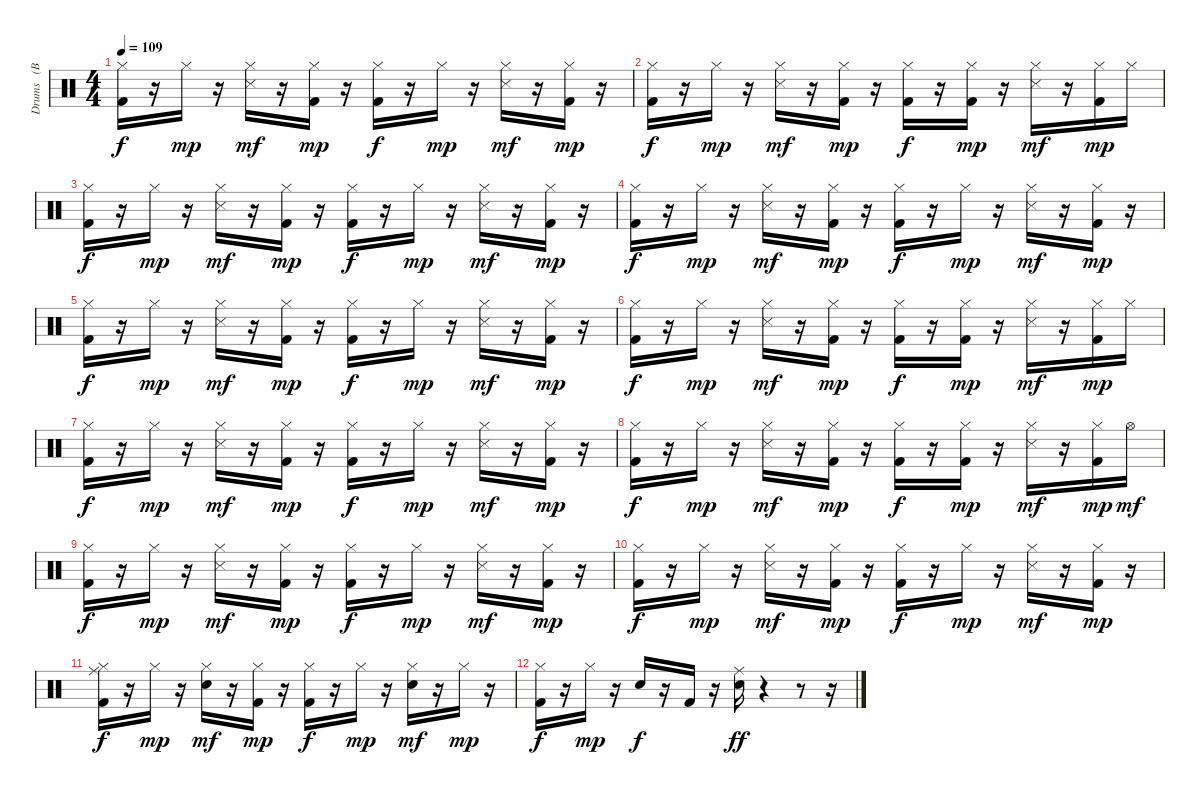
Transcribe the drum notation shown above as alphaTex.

\track ("Drums   (BB)" "Drums   (B") {instrument percussion}
\staff {score}
\articulation defaults
\ts (4 4)
\tempo 109
\clef neutral
\ks c
("Kick (hit) 2" "Hi-Hat (closed)").16{dy f} r.16 "Hi-Hat (closed)".16{dy mp} r.16 ("Hi-Hat (closed)" "Snare (side stick) 3").16{dy mf} r.16 ("Kick (hit) 2" "Hi-Hat (closed)").16{dy mp} r.16 ("Kick (hit) 2" "Hi-Hat (closed)").16{dy f} r.16 "Hi-Hat (closed)".16{dy mp} r.16 ("Hi-Hat (closed)" "Snare (side stick) 3").16{dy mf} r.16 ("Kick (hit) 2" "Hi-Hat (closed)").16{dy mp} r.16 |
("Kick (hit) 2" "Hi-Hat (closed)").16{dy f} r.16 "Hi-Hat (closed)".16{dy mp} r.16 ("Hi-Hat (closed)" "Snare (side stick) 3").16{dy mf} r.16 ("Kick (hit) 2" "Hi-Hat (closed)").16{dy mp} r.16 ("Kick (hit) 2" "Hi-Hat (closed)").16{dy f} r.16 ("Kick (hit) 2" "Hi-Hat (closed)").16{dy mp} r.16 ("Hi-Hat (closed)" "Snare (side stick) 3").16{dy mf} r.16 ("Kick (hit) 2" "Hi-Hat (closed)").16{dy mp} "Hi-Hat (closed)".16 |
("Kick (hit) 2" "Hi-Hat (closed)").16{dy f} r.16 "Hi-Hat (closed)".16{dy mp} r.16 ("Hi-Hat (closed)" "Snare (side stick) 3").16{dy mf} r.16 ("Kick (hit) 2" "Hi-Hat (closed)").16{dy mp} r.16 ("Kick (hit) 2" "Hi-Hat (closed)").16{dy f} r.16 "Hi-Hat (closed)".16{dy mp} r.16 ("Hi-Hat (closed)" "Snare (side stick) 3").16{dy mf} r.16 ("Kick (hit) 2" "Hi-Hat (closed)").16{dy mp} r.16 |
("Kick (hit) 2" "Hi-Hat (closed)").16{dy f} r.16 "Hi-Hat (closed)".16{dy mp} r.16 ("Hi-Hat (closed)" "Snare (side stick) 3").16{dy mf} r.16 ("Kick (hit) 2" "Hi-Hat (closed)").16{dy mp} r.16 ("Kick (hit) 2" "Hi-Hat (closed)").16{dy f} r.16 "Hi-Hat (closed)".16{dy mp} r.16 ("Hi-Hat (closed)" "Snare (side stick) 3").16{dy mf} r.16 ("Kick (hit) 2" "Hi-Hat (closed)").16{dy mp} r.16 |
("Kick (hit) 2" "Hi-Hat (closed)").16{dy f} r.16 "Hi-Hat (closed)".16{dy mp} r.16 ("Hi-Hat (closed)" "Snare (side stick) 3").16{dy mf} r.16 ("Kick (hit) 2" "Hi-Hat (closed)").16{dy mp} r.16 ("Kick (hit) 2" "Hi-Hat (closed)").16{dy f} r.16 "Hi-Hat (closed)".16{dy mp} r.16 ("Hi-Hat (closed)" "Snare (side stick) 3").16{dy mf} r.16 ("Kick (hit) 2" "Hi-Hat (closed)").16{dy mp} r.16 |
("Kick (hit) 2" "Hi-Hat (closed)").16{dy f} r.16 "Hi-Hat (closed)".16{dy mp} r.16 ("Hi-Hat (closed)" "Snare (side stick) 3").16{dy mf} r.16 ("Kick (hit) 2" "Hi-Hat (closed)").16{dy mp} r.16 ("Kick (hit) 2" "Hi-Hat (closed)").16{dy f} r.16 ("Kick (hit) 2" "Hi-Hat (closed)").16{dy mp} r.16 ("Hi-Hat (closed)" "Snare (side stick) 3").16{dy mf} r.16 ("Kick (hit) 2" "Hi-Hat (closed)").16{dy mp} "Hi-Hat (closed)".16 |
("Kick (hit) 2" "Hi-Hat (closed)").16{dy f} r.16 "Hi-Hat (closed)".16{dy mp} r.16 ("Hi-Hat (closed)" "Snare (side stick) 3").16{dy mf} r.16 ("Kick (hit) 2" "Hi-Hat (closed)").16{dy mp} r.16 ("Kick (hit) 2" "Hi-Hat (closed)").16{dy f} r.16 "Hi-Hat (closed)".16{dy mp} r.16 ("Hi-Hat (closed)" "Snare (side stick) 3").16{dy mf} r.16 ("Kick (hit) 2" "Hi-Hat (closed)").16{dy mp} r.16 |
("Kick (hit) 2" "Hi-Hat (closed)").16{dy f} r.16 "Hi-Hat (closed)".16{dy mp} r.16 ("Hi-Hat (closed)" "Snare (side stick) 3").16{dy mf} r.16 ("Kick (hit) 2" "Hi-Hat (closed)").16{dy mp} r.16 ("Kick (hit) 2" "Hi-Hat (closed)").16{dy f} r.16 ("Kick (hit) 2" "Hi-Hat (closed)").16{dy mp} r.16 ("Hi-Hat (closed)" "Snare (side stick) 3").16{dy mf} r.16 ("Kick (hit) 2" "Hi-Hat (closed)").16{dy mp} "Hi-Hat (open)".16{dy mf} |
("Kick (hit) 2" "Hi-Hat (closed)").16{dy f} r.16 "Hi-Hat (closed)".16{dy mp} r.16 ("Hi-Hat (closed)" "Snare (side stick) 3").16{dy mf} r.16 ("Kick (hit) 2" "Hi-Hat (closed)").16{dy mp} r.16 ("Kick (hit) 2" "Hi-Hat (closed)").16{dy f} r.16 "Hi-Hat (closed)".16{dy mp} r.16 ("Hi-Hat (closed)" "Snare (side stick) 3").16{dy mf} r.16 ("Kick (hit) 2" "Hi-Hat (closed)").16{dy mp} r.16 |
("Kick (hit) 2" "Hi-Hat (closed)").16{dy f} r.16 "Hi-Hat (closed)".16{dy mp} r.16 ("Hi-Hat (closed)" "Snare (side stick) 3").16{dy mf} r.16 ("Kick (hit) 2" "Hi-Hat (closed)").16{dy mp} r.16 ("Kick (hit) 2" "Hi-Hat (closed)").16{dy f} r.16 "Hi-Hat (closed)".16{dy mp} r.16 ("Hi-Hat (closed)" "Snare (side stick) 3").16{dy mf} r.16 ("Kick (hit) 2" "Hi-Hat (closed)").16{dy mp} r.16 |
("Kick (hit) 2" "Hi-Hat (closed)" "Ride (middle)").16{dy f} r.16 "Hi-Hat (closed)".16{dy mp} r.16 ("Snare (hit) 2" "Hi-Hat (closed)").16{dy mf} r.16 ("Kick (hit) 2" "Hi-Hat (closed)").16{dy mp} r.16 ("Kick (hit) 2" "Hi-Hat (closed)").16{dy f} r.16 "Hi-Hat (closed)".16{dy mp} r.16 ("Snare (hit) 2" "Hi-Hat (closed)").16{dy mf} r.16 "Hi-Hat (closed)".16{dy mp} r.16 |
("Kick (hit) 2" "Hi-Hat (closed)").16{dy f} r.16 "Hi-Hat (closed)".16{dy mp} r.16 "Snare (hit) 2".16{dy f} r.16 "Kick (hit) 2".16 r.16 ("Snare (hit) 2" "Ride (middle)").16{dy ff} r.4 r.8 r.16
